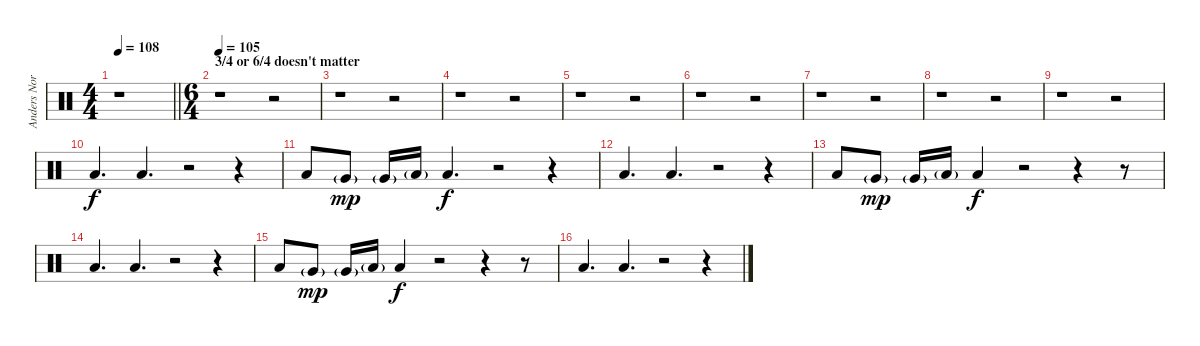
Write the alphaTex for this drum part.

\track ("Anders Nordin" "Anders Nor") {instrument percussion}
\staff {score}
\articulation defaults
\ts (4 4)
\tempo 108
\clef neutral
\barLineRight lightlight
\ks c
r.1{dy f} |
\ts (6 4)
\section ("" "3/4 or 6/4 doesn't matter")
\tempo 105
r.1 r.2 |
r.1 r.2 |
r.1 r.2 |
r.1 r.2 |
r.1 r.2 |
r.1 r.2 |
r.1 r.2 |
r.1 r.2 |
"Low Floor Tom (hit)".4{d} "Low Floor Tom (hit)".4{d} r.2 r.4 |
"Low Floor Tom (hit)".8 "Very Low Tom (hit)"{g}.8{dy mp} "Very Low Tom (hit)"{g}.16 "Low Floor Tom (hit)"{g}.16 "Low Floor Tom (hit)".4{d dy f} r.2 r.4 |
"Low Floor Tom (hit)".4{d} "Low Floor Tom (hit)".4{d} r.2 r.4 |
"Low Floor Tom (hit)".8 "Very Low Tom (hit)"{g}.8{dy mp} "Very Low Tom (hit)"{g}.16 "Low Floor Tom (hit)"{g}.16 "Low Floor Tom (hit)".4{dy f} r.2 r.4 r.8 |
"Low Floor Tom (hit)".4{d} "Low Floor Tom (hit)".4{d} r.2 r.4 |
"Low Floor Tom (hit)".8 "Very Low Tom (hit)"{g}.8{dy mp} "Very Low Tom (hit)"{g}.16 "Low Floor Tom (hit)"{g}.16 "Low Floor Tom (hit)".4{dy f} r.2 r.4 r.8 |
"Low Floor Tom (hit)".4{d} "Low Floor Tom (hit)".4{d} r.2 r.4
